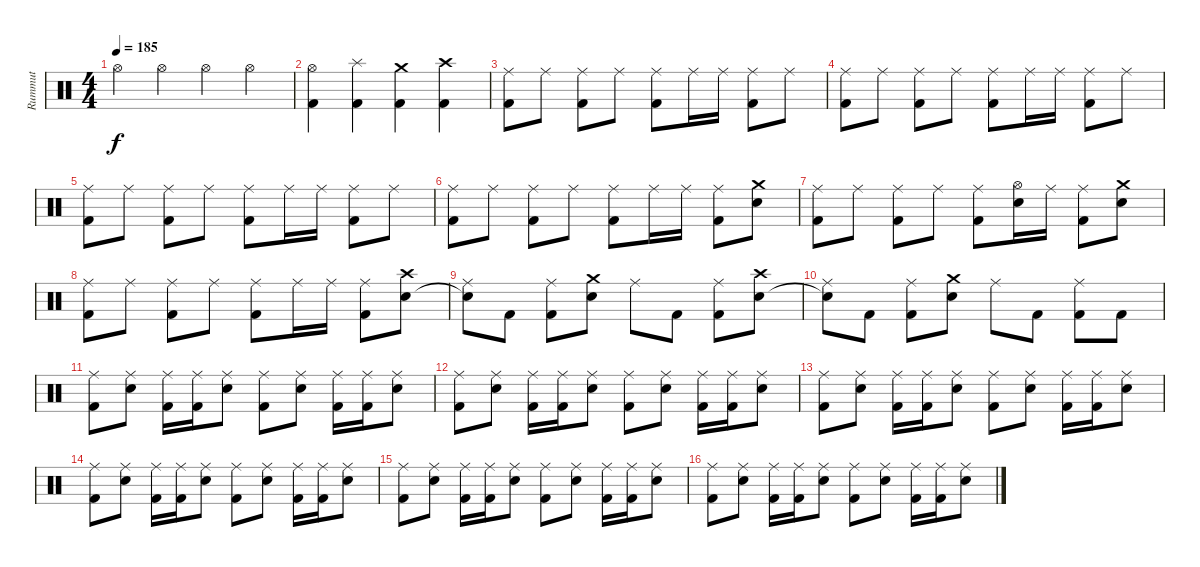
\track ("Rummut" "Rummut") {instrument percussion}
\staff {score}
\articulation defaults
\ts (4 4)
\tempo 185
\clef neutral
\ks c "Hi-Hat (open)".4{dy f} "Hi-Hat (open)".4 "Hi-Hat (open)".4 "Hi-Hat (open)".4
|
("Hi-Hat (open)" "Kick (hit) 2").4 ("Splash (hit)" "Kick (hit) 2").4 ("Crash medium (hit)" "Kick (hit) 2").4 ("Crash high (hit)" "Kick (hit) 2").4 |
("Ride (middle)" "Kick (hit) 2").8 "Ride (middle)".8 ("Ride (middle)" "Kick (hit) 2").8 "Ride (middle)".8 ("Ride (middle)" "Kick (hit) 2").8 "Ride (middle)".16 "Ride (middle)".16 ("Ride (middle)" "Kick (hit) 2").8 "Ride (middle)".8 |
("Ride (middle)" "Kick (hit) 2").8 "Ride (middle)".8 ("Ride (middle)" "Kick (hit) 2").8 "Ride (middle)".8 ("Ride (middle)" "Kick (hit) 2").8 "Ride (middle)".16 "Ride (middle)".16 ("Ride (middle)" "Kick (hit) 2").8 "Ride (middle)".8 |
("Ride (middle)" "Kick (hit) 2").8 "Ride (middle)".8 ("Ride (middle)" "Kick (hit) 2").8 "Ride (middle)".8 ("Ride (middle)" "Kick (hit) 2").8 "Ride (middle)".16 "Ride (middle)".16 ("Ride (middle)" "Kick (hit) 2").8 "Ride (middle)".8 |
("Ride (middle)" "Kick (hit) 2").8 "Ride (middle)".8 ("Ride (middle)" "Kick (hit) 2").8 "Ride (middle)".8 ("Ride (middle)" "Kick (hit) 2").8 "Ride (middle)".16 "Ride (middle)".16 ("Ride (middle)" "Kick (hit) 2").8 ("Crash medium (hit)" "Electric Snare (hit)").8 |
("Ride (middle)" "Kick (hit) 2").8 "Ride (middle)".8 ("Ride (middle)" "Kick (hit) 2").8 "Ride (middle)".8 ("Ride (middle)" "Kick (hit) 2").8 ("Hi-Hat (open)" "Electric Snare (hit)").16 "Ride (middle)".16 ("Ride (middle)" "Kick (hit) 2").8 ("Crash medium (hit)" "Electric Snare (hit)").8 |
("Ride (middle)" "Kick (hit) 2").8 "Ride (middle)".8 ("Ride (middle)" "Kick (hit) 2").8 "Ride (middle)".8 ("Ride (middle)" "Kick (hit) 2").8 "Ride (middle)".16 "Ride (middle)".16 ("Ride (middle)" "Kick (hit) 2").8 ("Crash high (hit)" "Electric Snare (hit)").8 |
("Ride (middle)" "Snare (hit)"{t}).8 "Kick (hit) 2".8 ("Ride (middle)" "Kick (hit) 2").8 ("Crash medium (hit)" "Electric Snare (hit)").8 "Ride (middle)".8 "Kick (hit) 2".8 ("Ride (middle)" "Kick (hit) 2").8 ("Crash high (hit)" "Electric Snare (hit)").8 |
("Ride (middle)" "Snare (hit)"{t}).8 "Kick (hit) 2".8 ("Ride (middle)" "Kick (hit) 2").8 ("Crash medium (hit)" "Electric Snare (hit)").8 "Ride (middle)".8 "Kick (hit) 2".8 ("Ride (middle)" "Kick (hit) 2").8 "Kick (hit) 2".8 |
("Ride (middle)" "Kick (hit) 2").8 ("Ride (middle)" "Electric Snare (hit)").8 ("Ride (middle)" "Kick (hit) 2").16 ("Ride (middle)" "Kick (hit) 2").16 ("Ride (middle)" "Electric Snare (hit)").8 ("Ride (middle)" "Kick (hit) 2").8 ("Ride (middle)" "Electric Snare (hit)").8 ("Ride (middle)" "Kick (hit) 2").16 ("Ride (middle)" "Kick (hit) 2").16 ("Ride (middle)" "Electric Snare (hit)").8 |
("Ride (middle)" "Kick (hit) 2").8 ("Ride (middle)" "Electric Snare (hit)").8 ("Ride (middle)" "Kick (hit) 2").16 ("Ride (middle)" "Kick (hit) 2").16 ("Ride (middle)" "Electric Snare (hit)").8 ("Ride (middle)" "Kick (hit) 2").8 ("Ride (middle)" "Electric Snare (hit)").8 ("Ride (middle)" "Kick (hit) 2").16 ("Ride (middle)" "Kick (hit) 2").16 ("Ride (middle)" "Electric Snare (hit)").8 |
("Ride (middle)" "Kick (hit) 2").8 ("Ride (middle)" "Electric Snare (hit)").8 ("Ride (middle)" "Kick (hit) 2").16 ("Ride (middle)" "Kick (hit) 2").16 ("Ride (middle)" "Electric Snare (hit)").8 ("Ride (middle)" "Kick (hit) 2").8 ("Ride (middle)" "Electric Snare (hit)").8 ("Ride (middle)" "Kick (hit) 2").16 ("Ride (middle)" "Kick (hit) 2").16 ("Ride (middle)" "Electric Snare (hit)").8 |
("Ride (middle)" "Kick (hit) 2").8 ("Ride (middle)" "Electric Snare (hit)").8 ("Ride (middle)" "Kick (hit) 2").16 ("Ride (middle)" "Kick (hit) 2").16 ("Ride (middle)" "Electric Snare (hit)").8 ("Ride (middle)" "Kick (hit) 2").8 ("Ride (middle)" "Electric Snare (hit)").8 ("Ride (middle)" "Kick (hit) 2").16 ("Ride (middle)" "Kick (hit) 2").16 ("Ride (middle)" "Electric Snare (hit)").8 |
("Ride (middle)" "Kick (hit) 2").8 ("Ride (middle)" "Electric Snare (hit)").8 ("Ride (middle)" "Kick (hit) 2").16 ("Ride (middle)" "Kick (hit) 2").16 ("Ride (middle)" "Electric Snare (hit)").8 ("Ride (middle)" "Kick (hit) 2").8 ("Ride (middle)" "Electric Snare (hit)").8 ("Ride (middle)" "Kick (hit) 2").16 ("Ride (middle)" "Kick (hit) 2").16 ("Ride (middle)" "Electric Snare (hit)").8 |
("Ride (middle)" "Kick (hit) 2").8 ("Ride (middle)" "Electric Snare (hit)").8 ("Ride (middle)" "Kick (hit) 2").16 ("Ride (middle)" "Kick (hit) 2").16 ("Ride (middle)" "Electric Snare (hit)").8 ("Ride (middle)" "Kick (hit) 2").8 ("Ride (middle)" "Electric Snare (hit)").8 ("Ride (middle)" "Kick (hit) 2").16 ("Ride (middle)" "Kick (hit) 2").16 ("Ride (middle)" "Electric Snare (hit)").8
